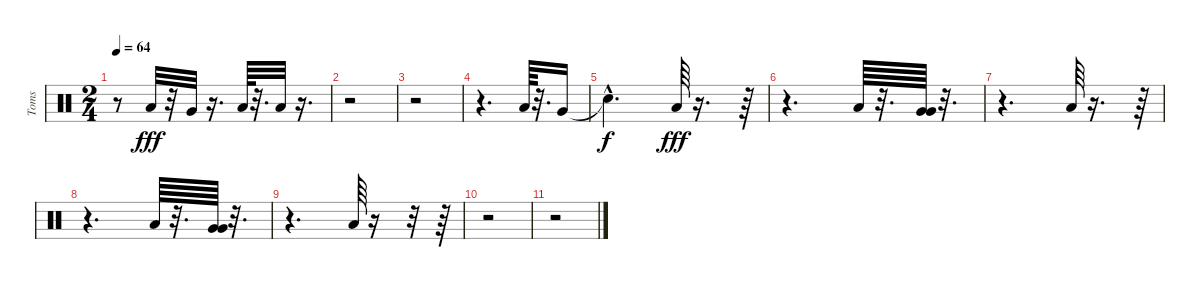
\track ("Toms" "Toms") {instrument percussion}
\staff {score}
\articulation defaults
\ts (2 4)
\tempo 64
\clef neutral
\ks c
r.8{dy fff} "Low Tom (hit)".32 r.32 "Very Low Tom (hit)".32 r.16{d} "Low Floor Tom (hit)".64 r.32{d} "Low Floor Tom (hit)".32 r.16{d} |
r.2 |
r.2 |
r.4{d} "Low Tom (hit)".64 r.32{d} "Very Low Tom (hit)".16 |
"Snare (hit)"{hac t}.4{d dy f} "Low Floor Tom (hit)".64{dy fff} r.16{d} r.64 |
r.4{d} "Low Tom (hit)".64 r.32{d} ("Very Low Tom (hit)" "Very Low Tom (hit)").64 r.32{d} |
r.4{d} "Low Floor Tom (hit)".64 r.16{d} r.64 |
r.4{d} "Low Tom (hit)".64 r.32{d} ("Very Low Tom (hit)" "Very Low Tom (hit)").64 r.32{d} |
r.4{d} "Low Floor Tom (hit)".64 r.16 r.32 r.64 |
r.2 |
r.2
